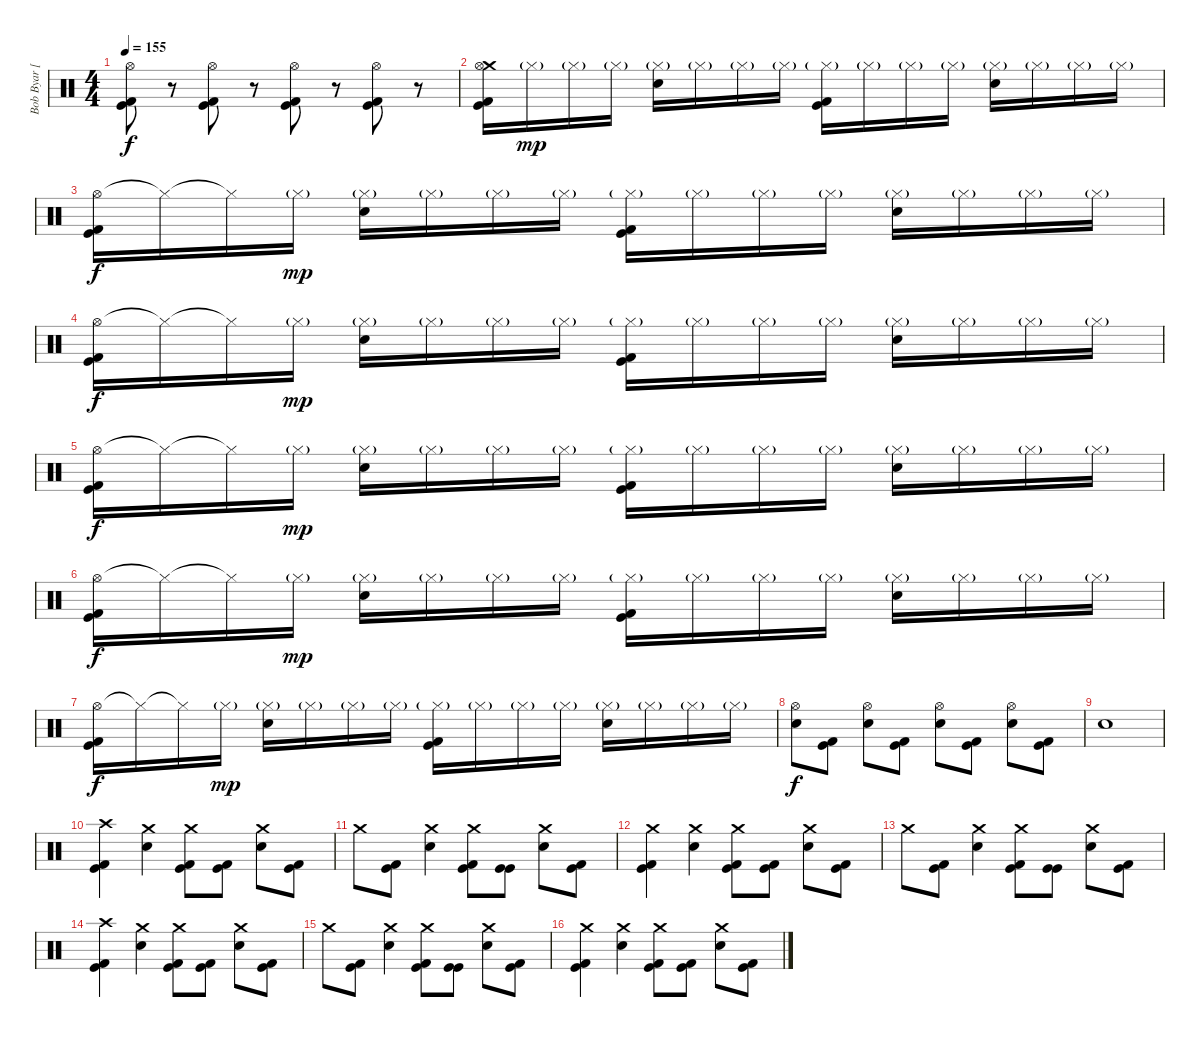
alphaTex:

\track ("Bob Byar [Drums]" "Bob Byar [") {instrument percussion}
\staff {score}
\articulation defaults
\ts (4 4)
\tempo 155
\clef neutral
\ks c
("Hi-Hat (open)" "Kick (hit)" "Kick (hit) 2").8{dy f} r.8 ("Hi-Hat (open)" "Kick (hit)" "Kick (hit) 2").8 r.8 ("Hi-Hat (open)" "Kick (hit)" "Kick (hit) 2").8 r.8 ("Hi-Hat (open)" "Kick (hit)" "Kick (hit) 2").8 r.8 |
("Crash medium (hit)" "Hi-Hat (open)" "Kick (hit)" "Kick (hit) 2").16 "Hi-Hat (closed)"{g}.16{dy mp} "Hi-Hat (closed)"{g}.16 "Hi-Hat (closed)"{g}.16 ("Hi-Hat (closed)"{g} "Electric Snare (hit)").16 "Hi-Hat (closed)"{g}.16 "Hi-Hat (closed)"{g}.16 "Hi-Hat (closed)"{g}.16 ("Hi-Hat (closed)"{g} "Kick (hit)" "Kick (hit) 2").16 "Hi-Hat (closed)"{g}.16 "Hi-Hat (closed)"{g}.16 "Hi-Hat (closed)"{g}.16 ("Hi-Hat (closed)"{g} "Electric Snare (hit)").16 "Hi-Hat (closed)"{g}.16 "Hi-Hat (closed)"{g}.16 "Hi-Hat (closed)"{g}.16 |
("Hi-Hat (open)" "Kick (hit)" "Kick (hit) 2").16{dy f} "Hi-Hat (closed)"{t}.16 "Hi-Hat (closed)"{t}.16 "Hi-Hat (closed)"{g}.16{dy mp} ("Hi-Hat (closed)"{g} "Electric Snare (hit)").16 "Hi-Hat (closed)"{g}.16 "Hi-Hat (closed)"{g}.16 "Hi-Hat (closed)"{g}.16 ("Hi-Hat (closed)"{g} "Kick (hit)" "Kick (hit) 2").16 "Hi-Hat (closed)"{g}.16 "Hi-Hat (closed)"{g}.16 "Hi-Hat (closed)"{g}.16 ("Hi-Hat (closed)"{g} "Electric Snare (hit)").16 "Hi-Hat (closed)"{g}.16 "Hi-Hat (closed)"{g}.16 "Hi-Hat (closed)"{g}.16 |
("Hi-Hat (open)" "Kick (hit)" "Kick (hit) 2").16{dy f} "Hi-Hat (closed)"{t}.16 "Hi-Hat (closed)"{t}.16 "Hi-Hat (closed)"{g}.16{dy mp} ("Hi-Hat (closed)"{g} "Electric Snare (hit)").16 "Hi-Hat (closed)"{g}.16 "Hi-Hat (closed)"{g}.16 "Hi-Hat (closed)"{g}.16 ("Hi-Hat (closed)"{g} "Kick (hit)" "Kick (hit) 2").16 "Hi-Hat (closed)"{g}.16 "Hi-Hat (closed)"{g}.16 "Hi-Hat (closed)"{g}.16 ("Hi-Hat (closed)"{g} "Electric Snare (hit)").16 "Hi-Hat (closed)"{g}.16 "Hi-Hat (closed)"{g}.16 "Hi-Hat (closed)"{g}.16 |
("Hi-Hat (open)" "Kick (hit)" "Kick (hit) 2").16{dy f} "Hi-Hat (closed)"{t}.16 "Hi-Hat (closed)"{t}.16 "Hi-Hat (closed)"{g}.16{dy mp} ("Hi-Hat (closed)"{g} "Electric Snare (hit)").16 "Hi-Hat (closed)"{g}.16 "Hi-Hat (closed)"{g}.16 "Hi-Hat (closed)"{g}.16 ("Hi-Hat (closed)"{g} "Kick (hit)" "Kick (hit) 2").16 "Hi-Hat (closed)"{g}.16 "Hi-Hat (closed)"{g}.16 "Hi-Hat (closed)"{g}.16 ("Hi-Hat (closed)"{g} "Electric Snare (hit)").16 "Hi-Hat (closed)"{g}.16 "Hi-Hat (closed)"{g}.16 "Hi-Hat (closed)"{g}.16 |
("Hi-Hat (open)" "Kick (hit)" "Kick (hit) 2").16{dy f} "Hi-Hat (closed)"{t}.16 "Hi-Hat (closed)"{t}.16 "Hi-Hat (closed)"{g}.16{dy mp} ("Hi-Hat (closed)"{g} "Electric Snare (hit)").16 "Hi-Hat (closed)"{g}.16 "Hi-Hat (closed)"{g}.16 "Hi-Hat (closed)"{g}.16 ("Hi-Hat (closed)"{g} "Kick (hit)" "Kick (hit) 2").16 "Hi-Hat (closed)"{g}.16 "Hi-Hat (closed)"{g}.16 "Hi-Hat (closed)"{g}.16 ("Hi-Hat (closed)"{g} "Electric Snare (hit)").16 "Hi-Hat (closed)"{g}.16 "Hi-Hat (closed)"{g}.16 "Hi-Hat (closed)"{g}.16 |
("Hi-Hat (open)" "Kick (hit)" "Kick (hit) 2").16{dy f} "Hi-Hat (closed)"{t}.16 "Hi-Hat (closed)"{t}.16 "Hi-Hat (closed)"{g}.16{dy mp} ("Hi-Hat (closed)"{g} "Electric Snare (hit)").16 "Hi-Hat (closed)"{g}.16 "Hi-Hat (closed)"{g}.16 "Hi-Hat (closed)"{g}.16 ("Hi-Hat (closed)"{g} "Kick (hit)" "Kick (hit) 2").16 "Hi-Hat (closed)"{g}.16 "Hi-Hat (closed)"{g}.16 "Hi-Hat (closed)"{g}.16 ("Hi-Hat (closed)"{g} "Electric Snare (hit)").16 "Hi-Hat (closed)"{g}.16 "Hi-Hat (closed)"{g}.16 "Hi-Hat (closed)"{g}.16 |
("Hi-Hat (open)" "Electric Snare (hit)").8{dy f} ("Kick (hit)" "Kick (hit) 2").8 ("Hi-Hat (open)" "Electric Snare (hit)").8 ("Kick (hit)" "Kick (hit) 2").8 ("Hi-Hat (open)" "Electric Snare (hit)").8 ("Kick (hit)" "Kick (hit) 2").8 ("Hi-Hat (open)" "Electric Snare (hit)").8 ("Kick (hit)" "Kick (hit) 2").8 |
"Electric Snare (hit)".1 |
("Crash high (hit)" "Kick (hit)" "Kick (hit) 2").4 ("Crash medium (hit)" "Electric Snare (hit)").4 ("Crash medium (hit)" "Kick (hit)" "Kick (hit) 2").8 ("Kick (hit)" "Kick (hit) 2").8 ("Crash medium (hit)" "Electric Snare (hit)").8 ("Kick (hit)" "Kick (hit) 2").8 |
"Crash medium (hit)".8 ("Kick (hit)" "Kick (hit) 2").8 ("Crash medium (hit)" "Electric Snare (hit)").4 ("Crash medium (hit)" "Kick (hit)" "Kick (hit) 2").8 ("Kick (hit)" "Kick (hit)").8 ("Crash medium (hit)" "Electric Snare (hit)").8 ("Kick (hit)" "Kick (hit) 2").8 |
("Crash medium (hit)" "Kick (hit)" "Kick (hit) 2").4 ("Crash medium (hit)" "Electric Snare (hit)").4 ("Crash medium (hit)" "Kick (hit)" "Kick (hit) 2").8 ("Kick (hit)" "Kick (hit) 2").8 ("Crash medium (hit)" "Electric Snare (hit)").8 ("Kick (hit)" "Kick (hit) 2").8 |
"Crash medium (hit)".8 ("Kick (hit)" "Kick (hit) 2").8 ("Crash medium (hit)" "Electric Snare (hit)").4 ("Crash medium (hit)" "Kick (hit)" "Kick (hit) 2").8 ("Kick (hit)" "Kick (hit)").8 ("Crash medium (hit)" "Electric Snare (hit)").8 ("Kick (hit)" "Kick (hit) 2").8 |
("Crash high (hit)" "Kick (hit)" "Kick (hit) 2").4 ("Crash medium (hit)" "Electric Snare (hit)").4 ("Crash medium (hit)" "Kick (hit)" "Kick (hit) 2").8 ("Kick (hit)" "Kick (hit) 2").8 ("Crash medium (hit)" "Electric Snare (hit)").8 ("Kick (hit)" "Kick (hit) 2").8 |
"Crash medium (hit)".8 ("Kick (hit)" "Kick (hit) 2").8 ("Crash medium (hit)" "Electric Snare (hit)").4 ("Crash medium (hit)" "Kick (hit)" "Kick (hit) 2").8 ("Kick (hit)" "Kick (hit)").8 ("Crash medium (hit)" "Electric Snare (hit)").8 ("Kick (hit)" "Kick (hit) 2").8 |
("Crash medium (hit)" "Kick (hit)" "Kick (hit) 2").4 ("Crash medium (hit)" "Electric Snare (hit)").4 ("Crash medium (hit)" "Kick (hit)" "Kick (hit) 2").8 ("Kick (hit)" "Kick (hit) 2").8 ("Crash medium (hit)" "Electric Snare (hit)").8 ("Kick (hit)" "Kick (hit) 2").8
